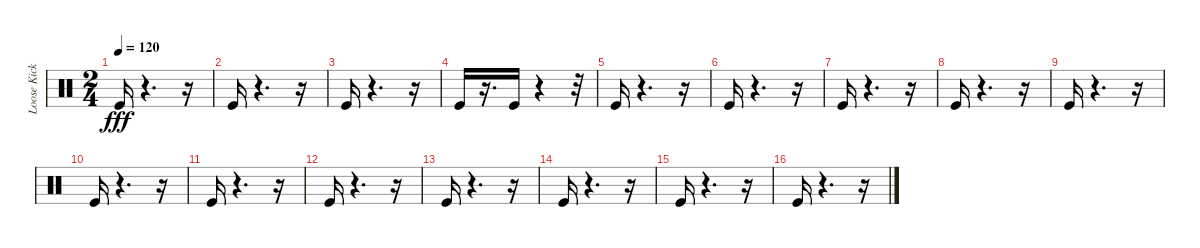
\track ("Loose Kick (1) (1) (1) (1)" "Loose Kick") {instrument percussion}
\staff {score}
\articulation defaults
\ts (2 4)
\tempo 120
\clef neutral
\ks c "Kick (hit)".16{dy fff}
r.4{d} r.16 |
"Kick (hit)".16 r.4{d} r.16 |
"Kick (hit)".16 r.4{d} r.16 |
"Kick (hit)".16 r.16{d} "Kick (hit)".16 r.4 r.32 |
"Kick (hit)".16 r.4{d} r.16 |
"Kick (hit)".16 r.4{d} r.16 |
"Kick (hit)".16 r.4{d} r.16 |
"Kick (hit)".16 r.4{d} r.16 |
"Kick (hit)".16 r.4{d} r.16 |
"Kick (hit)".16 r.4{d} r.16 |
"Kick (hit)".16 r.4{d} r.16 |
"Kick (hit)".16 r.4{d} r.16 |
"Kick (hit)".16 r.4{d} r.16 |
"Kick (hit)".16 r.4{d} r.16 |
"Kick (hit)".16 r.4{d} r.16 |
"Kick (hit)".16 r.4{d} r.16
